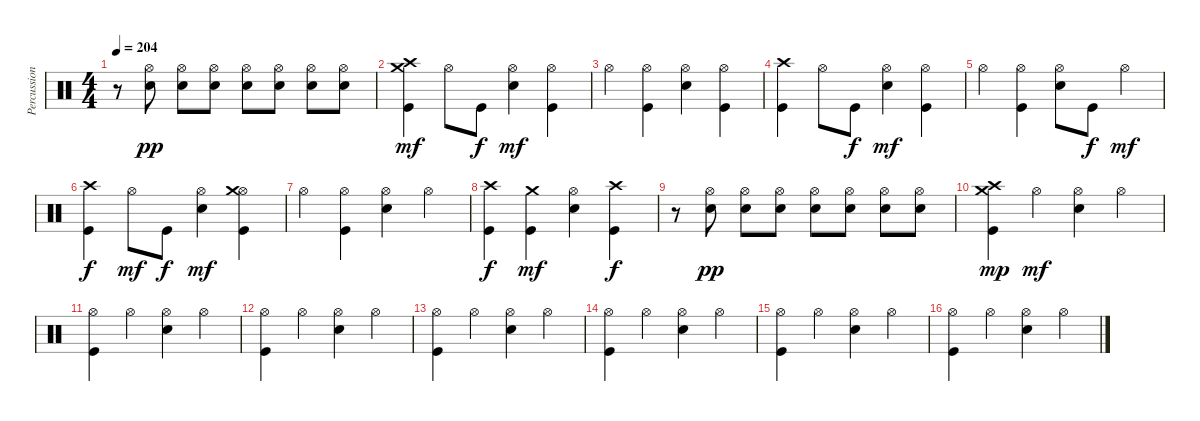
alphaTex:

\track ("Percussions" "Percussion") {instrument percussion}
\staff {score}
\articulation defaults
\ts (4 4)
\tempo 204
\clef neutral
\ks c
r.8{dy f} ("Electric Snare (hit)" "Hi-Hat (open)").8{dy pp} ("Electric Snare (hit)" "Hi-Hat (open)").8 ("Electric Snare (hit)" "Hi-Hat (open)").8 ("Electric Snare (hit)" "Hi-Hat (open)").8 ("Electric Snare (hit)" "Hi-Hat (open)").8 ("Electric Snare (hit)" "Hi-Hat (open)").8 ("Electric Snare (hit)" "Hi-Hat (open)").8 |
("Kick (hit)" "Crash high (hit)" "Crash medium (hit)").4{dy mf} "Hi-Hat (open)".8 "Kick (hit)".8{dy f} ("Electric Snare (hit)" "Hi-Hat (open)").4{dy mf} ("Kick (hit)" "Hi-Hat (open)").4 |
"Hi-Hat (open)".4 ("Kick (hit)" "Hi-Hat (open)").4 ("Electric Snare (hit)" "Hi-Hat (open)").4 ("Kick (hit)" "Hi-Hat (open)").4 |
("Kick (hit)" "Crash high (hit)").4 "Hi-Hat (open)".8 "Kick (hit)".8{dy f} ("Electric Snare (hit)" "Hi-Hat (open)").4{dy mf} ("Kick (hit)" "Hi-Hat (open)").4 |
"Hi-Hat (open)".4 ("Kick (hit)" "Hi-Hat (open)").4 ("Electric Snare (hit)" "Hi-Hat (open)").8 "Kick (hit)".8{dy f} "Hi-Hat (open)".4{dy mf} |
("Kick (hit)" "Crash high (hit)").4{dy f} "Hi-Hat (open)".8{dy mf} "Kick (hit)".8{dy f} ("Electric Snare (hit)" "Hi-Hat (open)").4{dy mf} ("Kick (hit)" "Hi-Hat (open)" "Crash medium (hit)").4 |
"Hi-Hat (open)".4 ("Kick (hit)" "Hi-Hat (open)").4 ("Electric Snare (hit)" "Hi-Hat (open)").4 "Hi-Hat (open)".4 |
("Kick (hit)" "Crash high (hit)").4{dy f} ("Kick (hit)" "Crash medium (hit)").4{dy mf} ("Electric Snare (hit)" "Hi-Hat (open)").4 ("Kick (hit)" "Crash high (hit)").4{dy f} |
r.8 ("Electric Snare (hit)" "Hi-Hat (open)").8{dy pp} ("Electric Snare (hit)" "Hi-Hat (open)").8 ("Electric Snare (hit)" "Hi-Hat (open)").8 ("Electric Snare (hit)" "Hi-Hat (open)").8 ("Electric Snare (hit)" "Hi-Hat (open)").8 ("Electric Snare (hit)" "Hi-Hat (open)").8 ("Electric Snare (hit)" "Hi-Hat (open)").8 |
("Kick (hit)" "Crash high (hit)" "Crash medium (hit)").4{dy mp} "Hi-Hat (open)".4{dy mf} ("Electric Snare (hit)" "Hi-Hat (open)").4 "Hi-Hat (open)".4 |
("Kick (hit)" "Hi-Hat (open)").4 "Hi-Hat (open)".4 ("Electric Snare (hit)" "Hi-Hat (open)").4 "Hi-Hat (open)".4 |
("Kick (hit)" "Hi-Hat (open)").4 "Hi-Hat (open)".4 ("Electric Snare (hit)" "Hi-Hat (open)").4 "Hi-Hat (open)".4 |
("Kick (hit)" "Hi-Hat (open)").4 "Hi-Hat (open)".4 ("Electric Snare (hit)" "Hi-Hat (open)").4 "Hi-Hat (open)".4 |
("Kick (hit)" "Hi-Hat (open)").4 "Hi-Hat (open)".4 ("Electric Snare (hit)" "Hi-Hat (open)").4 "Hi-Hat (open)".4 |
("Kick (hit)" "Hi-Hat (open)").4 "Hi-Hat (open)".4 ("Electric Snare (hit)" "Hi-Hat (open)").4 "Hi-Hat (open)".4 |
("Kick (hit)" "Hi-Hat (open)").4 "Hi-Hat (open)".4 ("Electric Snare (hit)" "Hi-Hat (open)").4 "Hi-Hat (open)".4
